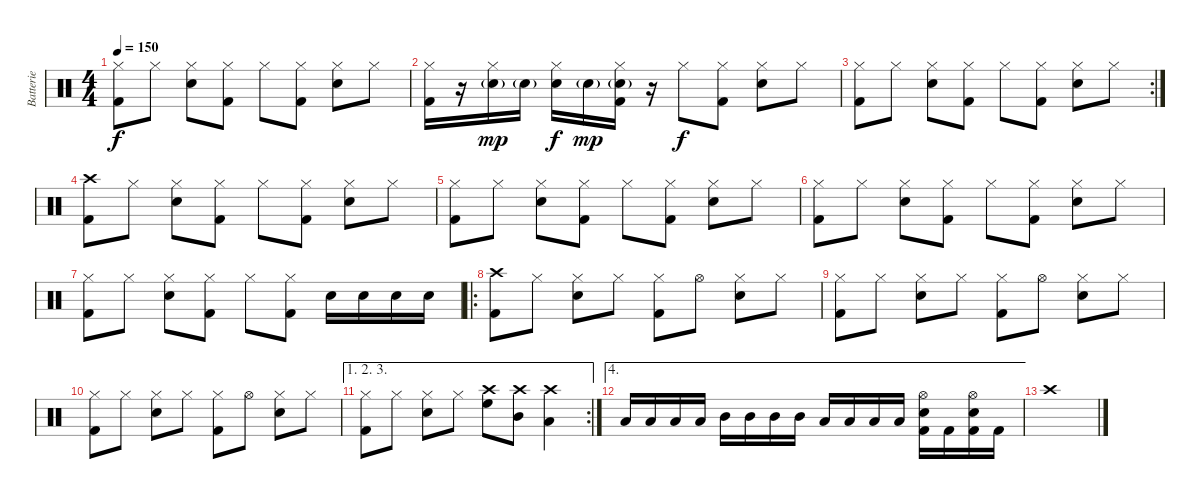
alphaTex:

\track ("Batterie" "Batterie") {instrument percussion}
\staff {score}
\articulation defaults
\ts (4 4)
\tempo 150
\clef neutral
\ks c
("Hi-Hat (closed)" "Kick (hit) 2").8{dy f} "Hi-Hat (closed)".8 ("Hi-Hat (closed)" "Snare (hit) 2").8 ("Hi-Hat (closed)" "Kick (hit) 2").8 "Hi-Hat (closed)".8 ("Hi-Hat (closed)" "Kick (hit) 2").8 ("Hi-Hat (closed)" "Snare (hit) 2").8 "Hi-Hat (closed)".8 |
("Hi-Hat (closed)" "Kick (hit) 2").16 r.16 ("Hi-Hat (closed)" "Snare (hit) 2"{g}).16{dy mp} "Snare (hit) 2"{g}.16 ("Hi-Hat (closed)" "Snare (hit) 2").16{dy f} "Snare (hit) 2"{g}.16{dy mp} ("Hi-Hat (closed)" "Snare (hit) 2"{g} "Kick (hit) 2").16 r.16 "Hi-Hat (closed)".8{dy f} ("Hi-Hat (closed)" "Kick (hit) 2").8 ("Hi-Hat (closed)" "Snare (hit) 2").8 "Hi-Hat (closed)".8 |
\rc 2
("Hi-Hat (closed)" "Kick (hit) 2").8 "Hi-Hat (closed)".8 ("Hi-Hat (closed)" "Snare (hit) 2").8 ("Hi-Hat (closed)" "Kick (hit) 2").8 "Hi-Hat (closed)".8 ("Hi-Hat (closed)" "Kick (hit) 2").8 ("Hi-Hat (closed)" "Snare (hit) 2").8 "Hi-Hat (closed)".8 |
("Crash high (hit)" "Kick (hit) 2").8 "Hi-Hat (closed)".8 ("Hi-Hat (closed)" "Snare (hit) 2").8 ("Hi-Hat (closed)" "Kick (hit) 2").8 "Hi-Hat (closed)".8 ("Hi-Hat (closed)" "Kick (hit) 2").8 ("Hi-Hat (closed)" "Snare (hit) 2").8 "Hi-Hat (closed)".8 |
("Hi-Hat (closed)" "Kick (hit) 2").8 "Hi-Hat (closed)".8 ("Hi-Hat (closed)" "Snare (hit) 2").8 ("Hi-Hat (closed)" "Kick (hit) 2").8 "Hi-Hat (closed)".8 ("Hi-Hat (closed)" "Kick (hit) 2").8 ("Hi-Hat (closed)" "Snare (hit) 2").8 "Hi-Hat (closed)".8 |
("Hi-Hat (closed)" "Kick (hit) 2").8 "Hi-Hat (closed)".8 ("Hi-Hat (closed)" "Snare (hit) 2").8 ("Hi-Hat (closed)" "Kick (hit) 2").8 "Hi-Hat (closed)".8 ("Hi-Hat (closed)" "Kick (hit) 2").8 ("Hi-Hat (closed)" "Snare (hit) 2").8 "Hi-Hat (closed)".8 |
("Hi-Hat (closed)" "Kick (hit) 2").8 "Hi-Hat (closed)".8 ("Hi-Hat (closed)" "Snare (hit) 2").8 ("Hi-Hat (closed)" "Kick (hit) 2").8 "Hi-Hat (closed)".8 ("Hi-Hat (closed)" "Kick (hit) 2").8 "Snare (hit) 2".16 "Snare (hit) 2".16 "Snare (hit) 2".16 "Snare (hit) 2".16 |
\ro
("Crash high (hit)" "Kick (hit) 2").8 "Hi-Hat (closed)".8 ("Hi-Hat (closed)" "Snare (hit) 2").8 "Hi-Hat (closed)".8 ("Hi-Hat (closed)" "Kick (hit) 2").8 "Hi-Hat (open)".8 ("Hi-Hat (closed)" "Snare (hit) 2").8 "Hi-Hat (closed)".8 |
("Hi-Hat (closed)" "Kick (hit) 2").8 "Hi-Hat (closed)".8 ("Hi-Hat (closed)" "Snare (hit) 2").8 "Hi-Hat (closed)".8 ("Hi-Hat (closed)" "Kick (hit) 2").8 "Hi-Hat (open)".8 ("Hi-Hat (closed)" "Snare (hit) 2").8 "Hi-Hat (closed)".8 |
("Hi-Hat (closed)" "Kick (hit) 2").8 "Hi-Hat (closed)".8 ("Hi-Hat (closed)" "Snare (hit) 2").8 "Hi-Hat (closed)".8 ("Hi-Hat (closed)" "Kick (hit) 2").8 "Hi-Hat (open)".8 ("Hi-Hat (closed)" "Snare (hit) 2").8 "Hi-Hat (closed)".8 |
\ae (1 2 3)
\rc 2
("Hi-Hat (closed)" "Kick (hit) 2").8 "Hi-Hat (closed)".8 ("Hi-Hat (closed)" "Snare (hit) 2").8 "Hi-Hat (closed)".8 ("Crash high (hit)" "High Floor Tom (hit)").8 ("Crash high (hit)" "Mid Tom (hit)").8 ("Crash high (hit)" "Low Tom (hit)").4 |
\ae 4 "Low Floor Tom (hit)".16 "Low Floor Tom (hit)".16 "Low Floor Tom (hit)".16 "Low Floor Tom (hit)".16 "Mid Tom (hit)".16 "Mid Tom (hit)".16 "Mid Tom (hit)".16 "Mid Tom (hit)".16 "Low Tom (hit)".16 "Low Tom (hit)".16 "Low Tom (hit)".16 "Low Tom (hit)".16
("Hi-Hat (open)" "Snare (hit) 2" "Kick (hit) 2").16 "Kick (hit) 2".16 ("Hi-Hat (open)" "Snare (hit) 2" "Kick (hit) 2").16 "Kick (hit) 2".16 |
"Crash high (hit)".1
